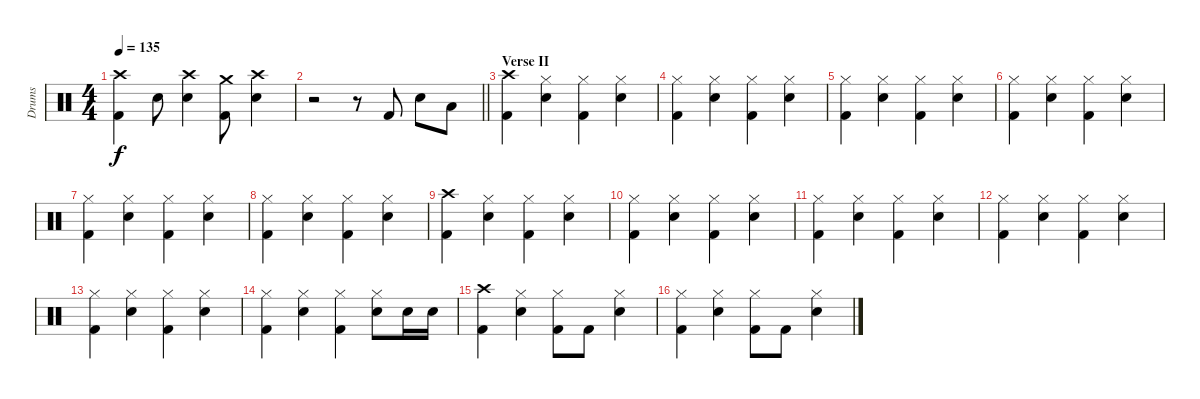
\track ("Drums" "Drums") {instrument percussion}
\staff {score}
\articulation defaults
\ts (4 4)
\tempo 135
\clef neutral
\ks c
("Crash high (hit)" "Kick (hit) 2").4{dy f} "Snare (hit) 2".8 ("Crash high (hit)" "Snare (hit) 2").4 ("Crash medium (hit)" "Kick (hit) 2").8 ("Crash high (hit)" "Snare (hit) 2").4 |
\barLineRight lightlight
r.2 r.8 "Kick (hit) 2".8 "Snare (hit) 2".8 "Low Tom (hit)".8 |
\section ("" "Verse II")
("Crash high (hit)" "Kick (hit) 2").4 ("Hi-Hat (closed)" "Snare (hit) 2").4 ("Hi-Hat (closed)" "Kick (hit) 2").4 ("Hi-Hat (closed)" "Snare (hit) 2").4 |
("Hi-Hat (closed)" "Kick (hit) 2").4 ("Hi-Hat (closed)" "Snare (hit) 2").4 ("Hi-Hat (closed)" "Kick (hit) 2").4 ("Hi-Hat (closed)" "Snare (hit) 2").4 |
("Hi-Hat (closed)" "Kick (hit) 2").4 ("Hi-Hat (closed)" "Snare (hit) 2").4 ("Hi-Hat (closed)" "Kick (hit) 2").4 ("Hi-Hat (closed)" "Snare (hit) 2").4 |
("Hi-Hat (closed)" "Kick (hit) 2").4 ("Hi-Hat (closed)" "Snare (hit) 2").4 ("Hi-Hat (closed)" "Kick (hit) 2").4 ("Hi-Hat (closed)" "Snare (hit) 2").4 |
("Hi-Hat (closed)" "Kick (hit) 2").4 ("Hi-Hat (closed)" "Snare (hit) 2").4 ("Hi-Hat (closed)" "Kick (hit) 2").4 ("Hi-Hat (closed)" "Snare (hit) 2").4 |
("Hi-Hat (closed)" "Kick (hit) 2").4 ("Hi-Hat (closed)" "Snare (hit) 2").4 ("Hi-Hat (closed)" "Kick (hit) 2").4 ("Hi-Hat (closed)" "Snare (hit) 2").4 |
("Crash high (hit)" "Kick (hit) 2").4 ("Hi-Hat (closed)" "Snare (hit) 2").4 ("Hi-Hat (closed)" "Kick (hit) 2").4 ("Hi-Hat (closed)" "Snare (hit) 2").4 |
("Hi-Hat (closed)" "Kick (hit) 2").4 ("Hi-Hat (closed)" "Snare (hit) 2").4 ("Hi-Hat (closed)" "Kick (hit) 2").4 ("Hi-Hat (closed)" "Snare (hit) 2").4 |
("Hi-Hat (closed)" "Kick (hit) 2").4 ("Hi-Hat (closed)" "Snare (hit) 2").4 ("Hi-Hat (closed)" "Kick (hit) 2").4 ("Hi-Hat (closed)" "Snare (hit) 2").4 |
("Hi-Hat (closed)" "Kick (hit) 2").4 ("Hi-Hat (closed)" "Snare (hit) 2").4 ("Hi-Hat (closed)" "Kick (hit) 2").4 ("Hi-Hat (closed)" "Snare (hit) 2").4 |
("Hi-Hat (closed)" "Kick (hit) 2").4 ("Hi-Hat (closed)" "Snare (hit) 2").4 ("Hi-Hat (closed)" "Kick (hit) 2").4 ("Hi-Hat (closed)" "Snare (hit) 2").4 |
("Hi-Hat (closed)" "Kick (hit) 2").4 ("Hi-Hat (closed)" "Snare (hit) 2").4 ("Hi-Hat (closed)" "Kick (hit) 2").4 ("Hi-Hat (closed)" "Snare (hit) 2").8 "Snare (hit) 2".16 "Snare (hit) 2".16 |
("Crash high (hit)" "Kick (hit) 2").4 ("Hi-Hat (closed)" "Snare (hit) 2").4 ("Hi-Hat (closed)" "Kick (hit) 2").8 "Kick (hit) 2".8 ("Hi-Hat (closed)" "Snare (hit) 2").4 |
("Hi-Hat (closed)" "Kick (hit) 2").4 ("Hi-Hat (closed)" "Snare (hit) 2").4 ("Hi-Hat (closed)" "Kick (hit) 2").8 "Kick (hit) 2".8 ("Hi-Hat (closed)" "Snare (hit) 2").4
